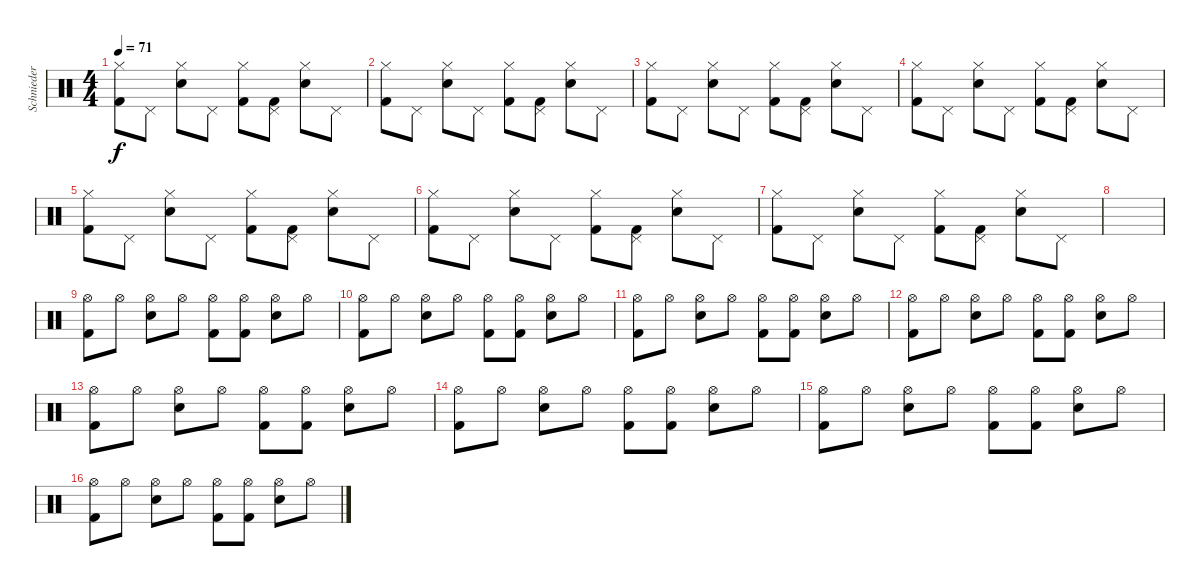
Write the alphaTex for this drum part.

\track ("Schnieder" "Schnieder") {instrument percussion}
\staff {score}
\articulation defaults
\ts (4 4)
\tempo 71
\clef neutral
\ks c
("Hi-Hat (closed)" "Kick (hit) 2").8{dy f} "Pedal Hi-Hat (hit)".8 ("Hi-Hat (closed)" "Electric Snare (hit)").8 "Pedal Hi-Hat (hit)".8 ("Hi-Hat (closed)" "Kick (hit) 2").8 ("Pedal Hi-Hat (hit)" "Kick (hit) 2").8 ("Hi-Hat (closed)" "Electric Snare (hit)").8 "Pedal Hi-Hat (hit)".8 |
("Hi-Hat (closed)" "Kick (hit) 2").8 "Pedal Hi-Hat (hit)".8 ("Hi-Hat (closed)" "Electric Snare (hit)").8 "Pedal Hi-Hat (hit)".8 ("Hi-Hat (closed)" "Kick (hit) 2").8 ("Pedal Hi-Hat (hit)" "Kick (hit) 2").8 ("Hi-Hat (closed)" "Electric Snare (hit)").8 "Pedal Hi-Hat (hit)".8 |
("Hi-Hat (closed)" "Kick (hit) 2").8 "Pedal Hi-Hat (hit)".8 ("Hi-Hat (closed)" "Electric Snare (hit)").8 "Pedal Hi-Hat (hit)".8 ("Hi-Hat (closed)" "Kick (hit) 2").8 ("Pedal Hi-Hat (hit)" "Kick (hit) 2").8 ("Hi-Hat (closed)" "Electric Snare (hit)").8 "Pedal Hi-Hat (hit)".8 |
("Hi-Hat (closed)" "Kick (hit) 2").8 "Pedal Hi-Hat (hit)".8 ("Hi-Hat (closed)" "Electric Snare (hit)").8 "Pedal Hi-Hat (hit)".8 ("Hi-Hat (closed)" "Kick (hit) 2").8 ("Pedal Hi-Hat (hit)" "Kick (hit) 2").8 ("Hi-Hat (closed)" "Electric Snare (hit)").8 "Pedal Hi-Hat (hit)".8 |
("Hi-Hat (closed)" "Kick (hit) 2").8 "Pedal Hi-Hat (hit)".8 ("Hi-Hat (closed)" "Electric Snare (hit)").8 "Pedal Hi-Hat (hit)".8 ("Hi-Hat (closed)" "Kick (hit) 2").8 ("Pedal Hi-Hat (hit)" "Kick (hit) 2").8 ("Hi-Hat (closed)" "Electric Snare (hit)").8 "Pedal Hi-Hat (hit)".8 |
("Hi-Hat (closed)" "Kick (hit) 2").8 "Pedal Hi-Hat (hit)".8 ("Hi-Hat (closed)" "Electric Snare (hit)").8 "Pedal Hi-Hat (hit)".8 ("Hi-Hat (closed)" "Kick (hit) 2").8 ("Pedal Hi-Hat (hit)" "Kick (hit) 2").8 ("Hi-Hat (closed)" "Electric Snare (hit)").8 "Pedal Hi-Hat (hit)".8 |
("Hi-Hat (closed)" "Kick (hit) 2").8 "Pedal Hi-Hat (hit)".8 ("Hi-Hat (closed)" "Electric Snare (hit)").8 "Pedal Hi-Hat (hit)".8 ("Hi-Hat (closed)" "Kick (hit) 2").8 ("Pedal Hi-Hat (hit)" "Kick (hit) 2").8 ("Hi-Hat (closed)" "Electric Snare (hit)").8 "Pedal Hi-Hat (hit)".8 |
|
("Hi-Hat (open)" "Kick (hit) 2").8 "Hi-Hat (open)".8 ("Hi-Hat (open)" "Electric Snare (hit)").8 "Hi-Hat (open)".8 ("Hi-Hat (open)" "Kick (hit) 2").8 ("Hi-Hat (open)" "Kick (hit) 2").8 ("Hi-Hat (open)" "Electric Snare (hit)").8 "Hi-Hat (open)".8 |
("Hi-Hat (open)" "Kick (hit) 2").8 "Hi-Hat (open)".8 ("Hi-Hat (open)" "Electric Snare (hit)").8 "Hi-Hat (open)".8 ("Hi-Hat (open)" "Kick (hit) 2").8 ("Hi-Hat (open)" "Kick (hit) 2").8 ("Hi-Hat (open)" "Electric Snare (hit)").8 "Hi-Hat (open)".8 |
("Hi-Hat (open)" "Kick (hit) 2").8 "Hi-Hat (open)".8 ("Hi-Hat (open)" "Electric Snare (hit)").8 "Hi-Hat (open)".8 ("Hi-Hat (open)" "Kick (hit) 2").8 ("Hi-Hat (open)" "Kick (hit) 2").8 ("Hi-Hat (open)" "Electric Snare (hit)").8 "Hi-Hat (open)".8 |
("Hi-Hat (open)" "Kick (hit) 2").8 "Hi-Hat (open)".8 ("Hi-Hat (open)" "Electric Snare (hit)").8 "Hi-Hat (open)".8 ("Hi-Hat (open)" "Kick (hit) 2").8 ("Hi-Hat (open)" "Kick (hit) 2").8 ("Hi-Hat (open)" "Electric Snare (hit)").8 "Hi-Hat (open)".8 |
("Hi-Hat (open)" "Kick (hit) 2").8 "Hi-Hat (open)".8 ("Hi-Hat (open)" "Electric Snare (hit)").8 "Hi-Hat (open)".8 ("Hi-Hat (open)" "Kick (hit) 2").8 ("Hi-Hat (open)" "Kick (hit) 2").8 ("Hi-Hat (open)" "Electric Snare (hit)").8 "Hi-Hat (open)".8 |
("Hi-Hat (open)" "Kick (hit) 2").8 "Hi-Hat (open)".8 ("Hi-Hat (open)" "Electric Snare (hit)").8 "Hi-Hat (open)".8 ("Hi-Hat (open)" "Kick (hit) 2").8 ("Hi-Hat (open)" "Kick (hit) 2").8 ("Hi-Hat (open)" "Electric Snare (hit)").8 "Hi-Hat (open)".8 |
("Hi-Hat (open)" "Kick (hit) 2").8 "Hi-Hat (open)".8 ("Hi-Hat (open)" "Electric Snare (hit)").8 "Hi-Hat (open)".8 ("Hi-Hat (open)" "Kick (hit) 2").8 ("Hi-Hat (open)" "Kick (hit) 2").8 ("Hi-Hat (open)" "Electric Snare (hit)").8 "Hi-Hat (open)".8 |
("Hi-Hat (open)" "Kick (hit) 2").8 "Hi-Hat (open)".8 ("Hi-Hat (open)" "Electric Snare (hit)").8 "Hi-Hat (open)".8 ("Hi-Hat (open)" "Kick (hit) 2").8 ("Hi-Hat (open)" "Kick (hit) 2").8 ("Hi-Hat (open)" "Electric Snare (hit)").8 "Hi-Hat (open)".8
